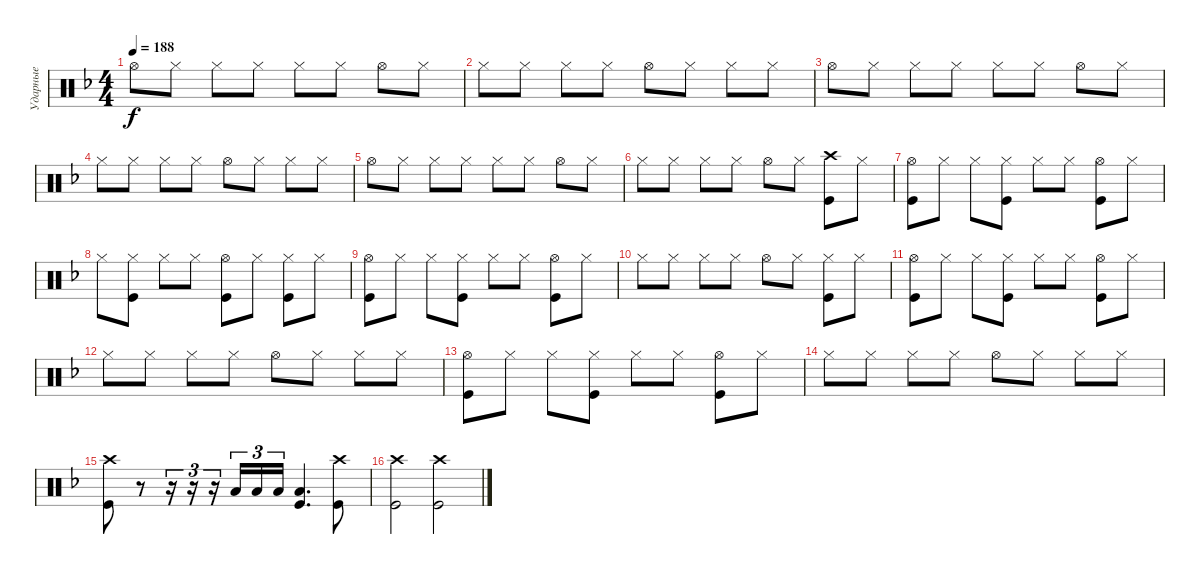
\track ("Ударные" "Ударные") {instrument percussion}
\staff {score}
\articulation defaults
\ts (4 4)
\tempo 188
\clef neutral
\ks dminor "Hi-Hat (open)".8{dy f} "Hi-Hat (closed)".8 "Hi-Hat (closed)".8 "Hi-Hat (closed)".8 "Hi-Hat (closed)".8 "Hi-Hat (closed)".8 "Hi-Hat (open)".8 "Hi-Hat (closed)".8
|
"Hi-Hat (closed)".8 "Hi-Hat (closed)".8 "Hi-Hat (closed)".8 "Hi-Hat (closed)".8 "Hi-Hat (open)".8 "Hi-Hat (closed)".8 "Hi-Hat (closed)".8 "Hi-Hat (closed)".8 |
"Hi-Hat (open)".8 "Hi-Hat (closed)".8 "Hi-Hat (closed)".8 "Hi-Hat (closed)".8 "Hi-Hat (closed)".8 "Hi-Hat (closed)".8 "Hi-Hat (open)".8 "Hi-Hat (closed)".8 |
"Hi-Hat (closed)".8 "Hi-Hat (closed)".8 "Hi-Hat (closed)".8 "Hi-Hat (closed)".8 "Hi-Hat (open)".8 "Hi-Hat (closed)".8 "Hi-Hat (closed)".8 "Hi-Hat (closed)".8 |
"Hi-Hat (open)".8 "Hi-Hat (closed)".8 "Hi-Hat (closed)".8 "Hi-Hat (closed)".8 "Hi-Hat (closed)".8 "Hi-Hat (closed)".8 "Hi-Hat (open)".8 "Hi-Hat (closed)".8 |
"Hi-Hat (closed)".8 "Hi-Hat (closed)".8 "Hi-Hat (closed)".8 "Hi-Hat (closed)".8 "Hi-Hat (open)".8 "Hi-Hat (closed)".8 ("Crash high (hit)" "Kick (hit)").8 "Hi-Hat (closed)".8 |
("Kick (hit)" "Hi-Hat (open)").8 "Hi-Hat (closed)".8 "Hi-Hat (closed)".8 ("Hi-Hat (closed)" "Kick (hit)").8 "Hi-Hat (closed)".8 "Hi-Hat (closed)".8 ("Hi-Hat (open)" "Kick (hit)").8 "Hi-Hat (closed)".8 |
"Hi-Hat (closed)".8 ("Hi-Hat (closed)" "Kick (hit)").8 "Hi-Hat (closed)".8 "Hi-Hat (closed)".8 ("Hi-Hat (open)" "Kick (hit)").8 "Hi-Hat (closed)".8 ("Hi-Hat (closed)" "Kick (hit)").8 "Hi-Hat (closed)".8 |
("Kick (hit)" "Hi-Hat (open)").8 "Hi-Hat (closed)".8 "Hi-Hat (closed)".8 ("Hi-Hat (closed)" "Kick (hit)").8 "Hi-Hat (closed)".8 "Hi-Hat (closed)".8 ("Hi-Hat (open)" "Kick (hit)").8 "Hi-Hat (closed)".8 |
"Hi-Hat (closed)".8 "Hi-Hat (closed)".8 "Hi-Hat (closed)".8 "Hi-Hat (closed)".8 "Hi-Hat (open)".8 "Hi-Hat (closed)".8 ("Hi-Hat (closed)" "Kick (hit)").8 "Hi-Hat (closed)".8 |
("Kick (hit)" "Hi-Hat (open)").8 "Hi-Hat (closed)".8 "Hi-Hat (closed)".8 ("Hi-Hat (closed)" "Kick (hit)").8 "Hi-Hat (closed)".8 "Hi-Hat (closed)".8 ("Hi-Hat (open)" "Kick (hit)").8 "Hi-Hat (closed)".8 |
"Hi-Hat (closed)".8 "Hi-Hat (closed)".8 "Hi-Hat (closed)".8 "Hi-Hat (closed)".8 "Hi-Hat (open)".8 "Hi-Hat (closed)".8 "Hi-Hat (closed)".8 "Hi-Hat (closed)".8 |
("Kick (hit)" "Hi-Hat (open)").8 "Hi-Hat (closed)".8 "Hi-Hat (closed)".8 ("Hi-Hat (closed)" "Kick (hit)").8 "Hi-Hat (closed)".8 "Hi-Hat (closed)".8 ("Hi-Hat (open)" "Kick (hit)").8 "Hi-Hat (closed)".8 |
"Hi-Hat (closed)".8 "Hi-Hat (closed)".8 "Hi-Hat (closed)".8 "Hi-Hat (closed)".8 "Hi-Hat (open)".8 "Hi-Hat (closed)".8 "Hi-Hat (closed)".8 "Hi-Hat (closed)".8 |
("Kick (hit)" "Crash high (hit)").8 r.8 r.16{tu (3 2)} r.16{tu (3 2)} r.16{tu (3 2)} "Low Floor Tom (hit)".16{tu (3 2)} "Low Floor Tom (hit)".16{tu (3 2)} "Low Floor Tom (hit)".16{tu (3 2)} ("Kick (hit)" "Low Floor Tom (hit)").4{d} ("Kick (hit)" "Crash high (hit)").8 |
("Kick (hit)" "Crash high (hit)").2 ("Kick (hit)" "Crash high (hit)").2
